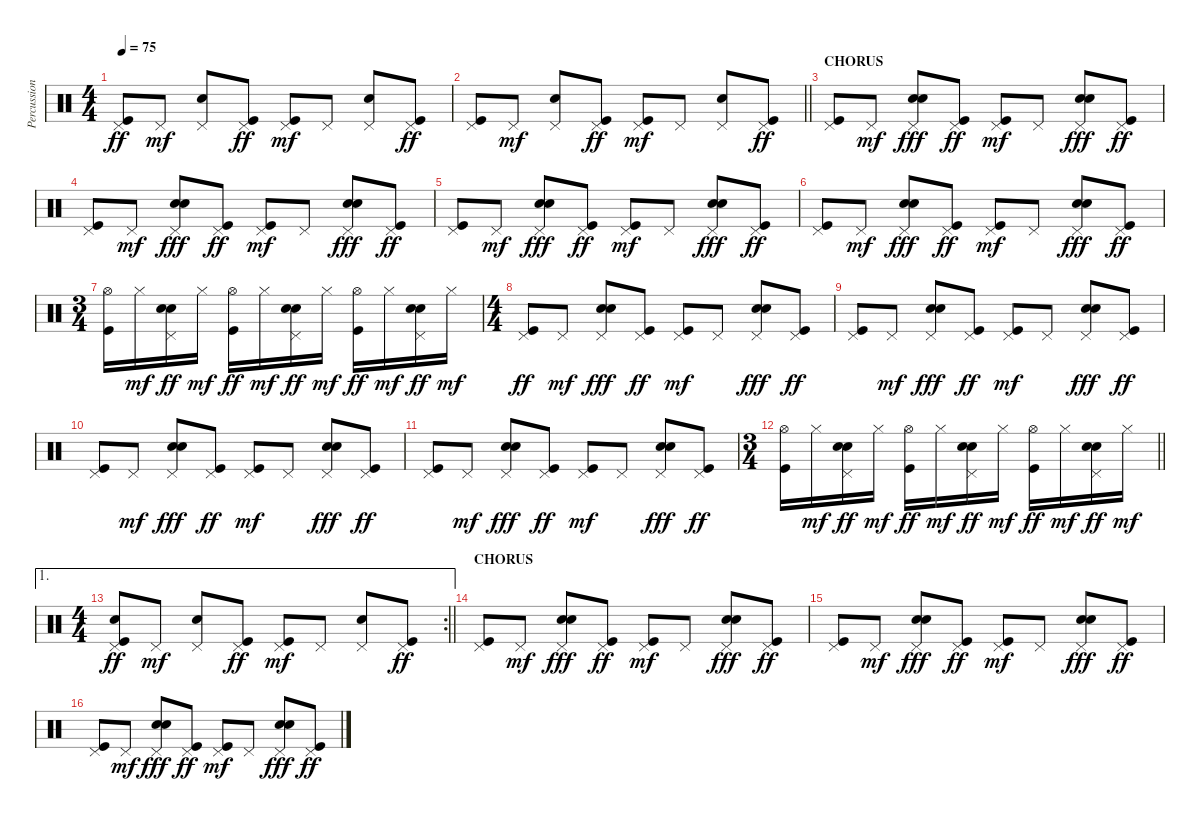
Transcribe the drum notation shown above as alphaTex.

\track ("Percussion" "Percussion") {instrument percussion}
\staff {score}
\articulation defaults
\ts (4 4)
\tempo 75
\clef neutral
\ks c
("Pedal Hi-Hat (hit)" "Kick (hit)").8{dy ff} "Pedal Hi-Hat (hit)".8{dy mf} ("Pedal Hi-Hat (hit)" "Electric Snare (hit)").8 ("Pedal Hi-Hat (hit)" "Kick (hit)").8{dy ff} ("Pedal Hi-Hat (hit)" "Kick (hit)").8{dy mf} "Pedal Hi-Hat (hit)".8 ("Pedal Hi-Hat (hit)" "Electric Snare (hit)").8 ("Pedal Hi-Hat (hit)" "Kick (hit)").8{dy ff} |
\barLineRight lightlight
("Pedal Hi-Hat (hit)" "Kick (hit)").8 "Pedal Hi-Hat (hit)".8{dy mf} ("Pedal Hi-Hat (hit)" "Electric Snare (hit)").8 ("Pedal Hi-Hat (hit)" "Kick (hit)").8{dy ff} ("Pedal Hi-Hat (hit)" "Kick (hit)").8{dy mf} "Pedal Hi-Hat (hit)".8 ("Pedal Hi-Hat (hit)" "Electric Snare (hit)").8 ("Pedal Hi-Hat (hit)" "Kick (hit)").8{dy ff} |
\section ("" "CHORUS")
("Pedal Hi-Hat (hit)" "Kick (hit)").8 "Pedal Hi-Hat (hit)".8{dy mf} ("Pedal Hi-Hat (hit)" "Hand Clap (hit)" "Electric Snare (hit)").8{dy fff} ("Pedal Hi-Hat (hit)" "Kick (hit)").8{dy ff} ("Pedal Hi-Hat (hit)" "Kick (hit)").8{dy mf} "Pedal Hi-Hat (hit)".8 ("Pedal Hi-Hat (hit)" "Hand Clap (hit)" "Electric Snare (hit)").8{dy fff} ("Pedal Hi-Hat (hit)" "Kick (hit)").8{dy ff} |
("Pedal Hi-Hat (hit)" "Kick (hit)").8 "Pedal Hi-Hat (hit)".8{dy mf} ("Pedal Hi-Hat (hit)" "Hand Clap (hit)" "Electric Snare (hit)").8{dy fff} ("Pedal Hi-Hat (hit)" "Kick (hit)").8{dy ff} ("Pedal Hi-Hat (hit)" "Kick (hit)").8{dy mf} "Pedal Hi-Hat (hit)".8 ("Pedal Hi-Hat (hit)" "Hand Clap (hit)" "Electric Snare (hit)").8{dy fff} ("Pedal Hi-Hat (hit)" "Kick (hit)").8{dy ff} |
("Pedal Hi-Hat (hit)" "Kick (hit)").8 "Pedal Hi-Hat (hit)".8{dy mf} ("Pedal Hi-Hat (hit)" "Hand Clap (hit)" "Electric Snare (hit)").8{dy fff} ("Pedal Hi-Hat (hit)" "Kick (hit)").8{dy ff} ("Pedal Hi-Hat (hit)" "Kick (hit)").8{dy mf} "Pedal Hi-Hat (hit)".8 ("Pedal Hi-Hat (hit)" "Hand Clap (hit)" "Electric Snare (hit)").8{dy fff} ("Pedal Hi-Hat (hit)" "Kick (hit)").8{dy ff} |
("Pedal Hi-Hat (hit)" "Kick (hit)").8 "Pedal Hi-Hat (hit)".8{dy mf} ("Pedal Hi-Hat (hit)" "Hand Clap (hit)" "Electric Snare (hit)").8{dy fff} ("Pedal Hi-Hat (hit)" "Kick (hit)").8{dy ff} ("Pedal Hi-Hat (hit)" "Kick (hit)").8{dy mf} "Pedal Hi-Hat (hit)".8 ("Pedal Hi-Hat (hit)" "Hand Clap (hit)" "Electric Snare (hit)").8{dy fff} ("Pedal Hi-Hat (hit)" "Kick (hit)").8{dy ff} |
\ts (3 4)
("Hi-Hat (open)" "Kick (hit)").16 "Hi-Hat (closed)".16{dy mf} ("Pedal Hi-Hat (hit)" "Hand Clap (hit)" "Snare (hit) 2").16{dy ff} "Hi-Hat (closed)".16{dy mf} ("Hi-Hat (open)" "Kick (hit)").16{dy ff} "Hi-Hat (closed)".16{dy mf} ("Pedal Hi-Hat (hit)" "Hand Clap (hit)" "Snare (hit) 2").16{dy ff} "Hi-Hat (closed)".16{dy mf} ("Hi-Hat (open)" "Kick (hit)").16{dy ff} "Hi-Hat (closed)".16{dy mf} ("Pedal Hi-Hat (hit)" "Hand Clap (hit)" "Snare (hit) 2").16{dy ff} "Hi-Hat (closed)".16{dy mf} |
\ts (4 4)
("Pedal Hi-Hat (hit)" "Kick (hit)").8{dy ff} "Pedal Hi-Hat (hit)".8{dy mf} ("Pedal Hi-Hat (hit)" "Hand Clap (hit)" "Electric Snare (hit)").8{dy fff} ("Pedal Hi-Hat (hit)" "Kick (hit)").8{dy ff} ("Pedal Hi-Hat (hit)" "Kick (hit)").8{dy mf} "Pedal Hi-Hat (hit)".8 ("Pedal Hi-Hat (hit)" "Hand Clap (hit)" "Electric Snare (hit)").8{dy fff} ("Pedal Hi-Hat (hit)" "Kick (hit)").8{dy ff} |
("Pedal Hi-Hat (hit)" "Kick (hit)").8 "Pedal Hi-Hat (hit)".8{dy mf} ("Pedal Hi-Hat (hit)" "Hand Clap (hit)" "Electric Snare (hit)").8{dy fff} ("Pedal Hi-Hat (hit)" "Kick (hit)").8{dy ff} ("Pedal Hi-Hat (hit)" "Kick (hit)").8{dy mf} "Pedal Hi-Hat (hit)".8 ("Pedal Hi-Hat (hit)" "Hand Clap (hit)" "Electric Snare (hit)").8{dy fff} ("Pedal Hi-Hat (hit)" "Kick (hit)").8{dy ff} |
("Pedal Hi-Hat (hit)" "Kick (hit)").8 "Pedal Hi-Hat (hit)".8{dy mf} ("Pedal Hi-Hat (hit)" "Hand Clap (hit)" "Electric Snare (hit)").8{dy fff} ("Pedal Hi-Hat (hit)" "Kick (hit)").8{dy ff} ("Pedal Hi-Hat (hit)" "Kick (hit)").8{dy mf} "Pedal Hi-Hat (hit)".8 ("Pedal Hi-Hat (hit)" "Hand Clap (hit)" "Electric Snare (hit)").8{dy fff} ("Pedal Hi-Hat (hit)" "Kick (hit)").8{dy ff} |
("Pedal Hi-Hat (hit)" "Kick (hit)").8 "Pedal Hi-Hat (hit)".8{dy mf} ("Pedal Hi-Hat (hit)" "Hand Clap (hit)" "Electric Snare (hit)").8{dy fff} ("Pedal Hi-Hat (hit)" "Kick (hit)").8{dy ff} ("Pedal Hi-Hat (hit)" "Kick (hit)").8{dy mf} "Pedal Hi-Hat (hit)".8 ("Pedal Hi-Hat (hit)" "Hand Clap (hit)" "Electric Snare (hit)").8{dy fff} ("Pedal Hi-Hat (hit)" "Kick (hit)").8{dy ff} |
\ts (3 4)
\barLineRight lightlight
("Hi-Hat (open)" "Kick (hit)").16 "Hi-Hat (closed)".16{dy mf} ("Pedal Hi-Hat (hit)" "Hand Clap (hit)" "Snare (hit) 2").16{dy ff} "Hi-Hat (closed)".16{dy mf} ("Hi-Hat (open)" "Kick (hit)").16{dy ff} "Hi-Hat (closed)".16{dy mf} ("Pedal Hi-Hat (hit)" "Hand Clap (hit)" "Snare (hit) 2").16{dy ff} "Hi-Hat (closed)".16{dy mf} ("Hi-Hat (open)" "Kick (hit)").16{dy ff} "Hi-Hat (closed)".16{dy mf} ("Pedal Hi-Hat (hit)" "Hand Clap (hit)" "Snare (hit) 2").16{dy ff} "Hi-Hat (closed)".16{dy mf} |
\ae 1
\rc 2
\ts (4 4)
\barLineRight lightlight
("Pedal Hi-Hat (hit)" "Snare (hit) 2" "Kick (hit)").8{dy ff} "Pedal Hi-Hat (hit)".8{dy mf} ("Pedal Hi-Hat (hit)" "Electric Snare (hit)").8 ("Pedal Hi-Hat (hit)" "Kick (hit)").8{dy ff} ("Pedal Hi-Hat (hit)" "Kick (hit)").8{dy mf} "Pedal Hi-Hat (hit)".8 ("Pedal Hi-Hat (hit)" "Electric Snare (hit)").8 ("Pedal Hi-Hat (hit)" "Kick (hit)").8{dy ff} |
\section ("" "CHORUS")
("Pedal Hi-Hat (hit)" "Kick (hit)").8 "Pedal Hi-Hat (hit)".8{dy mf} ("Pedal Hi-Hat (hit)" "Hand Clap (hit)" "Electric Snare (hit)").8{dy fff} ("Pedal Hi-Hat (hit)" "Kick (hit)").8{dy ff} ("Pedal Hi-Hat (hit)" "Kick (hit)").8{dy mf} "Pedal Hi-Hat (hit)".8 ("Pedal Hi-Hat (hit)" "Hand Clap (hit)" "Electric Snare (hit)").8{dy fff} ("Pedal Hi-Hat (hit)" "Kick (hit)").8{dy ff} |
("Pedal Hi-Hat (hit)" "Kick (hit)").8 "Pedal Hi-Hat (hit)".8{dy mf} ("Pedal Hi-Hat (hit)" "Hand Clap (hit)" "Electric Snare (hit)").8{dy fff} ("Pedal Hi-Hat (hit)" "Kick (hit)").8{dy ff} ("Pedal Hi-Hat (hit)" "Kick (hit)").8{dy mf} "Pedal Hi-Hat (hit)".8 ("Pedal Hi-Hat (hit)" "Hand Clap (hit)" "Electric Snare (hit)").8{dy fff} ("Pedal Hi-Hat (hit)" "Kick (hit)").8{dy ff} |
("Pedal Hi-Hat (hit)" "Kick (hit)").8 "Pedal Hi-Hat (hit)".8{dy mf} ("Pedal Hi-Hat (hit)" "Hand Clap (hit)" "Electric Snare (hit)").8{dy fff} ("Pedal Hi-Hat (hit)" "Kick (hit)").8{dy ff} ("Pedal Hi-Hat (hit)" "Kick (hit)").8{dy mf} "Pedal Hi-Hat (hit)".8 ("Pedal Hi-Hat (hit)" "Hand Clap (hit)" "Electric Snare (hit)").8{dy fff} ("Pedal Hi-Hat (hit)" "Kick (hit)").8{dy ff}
